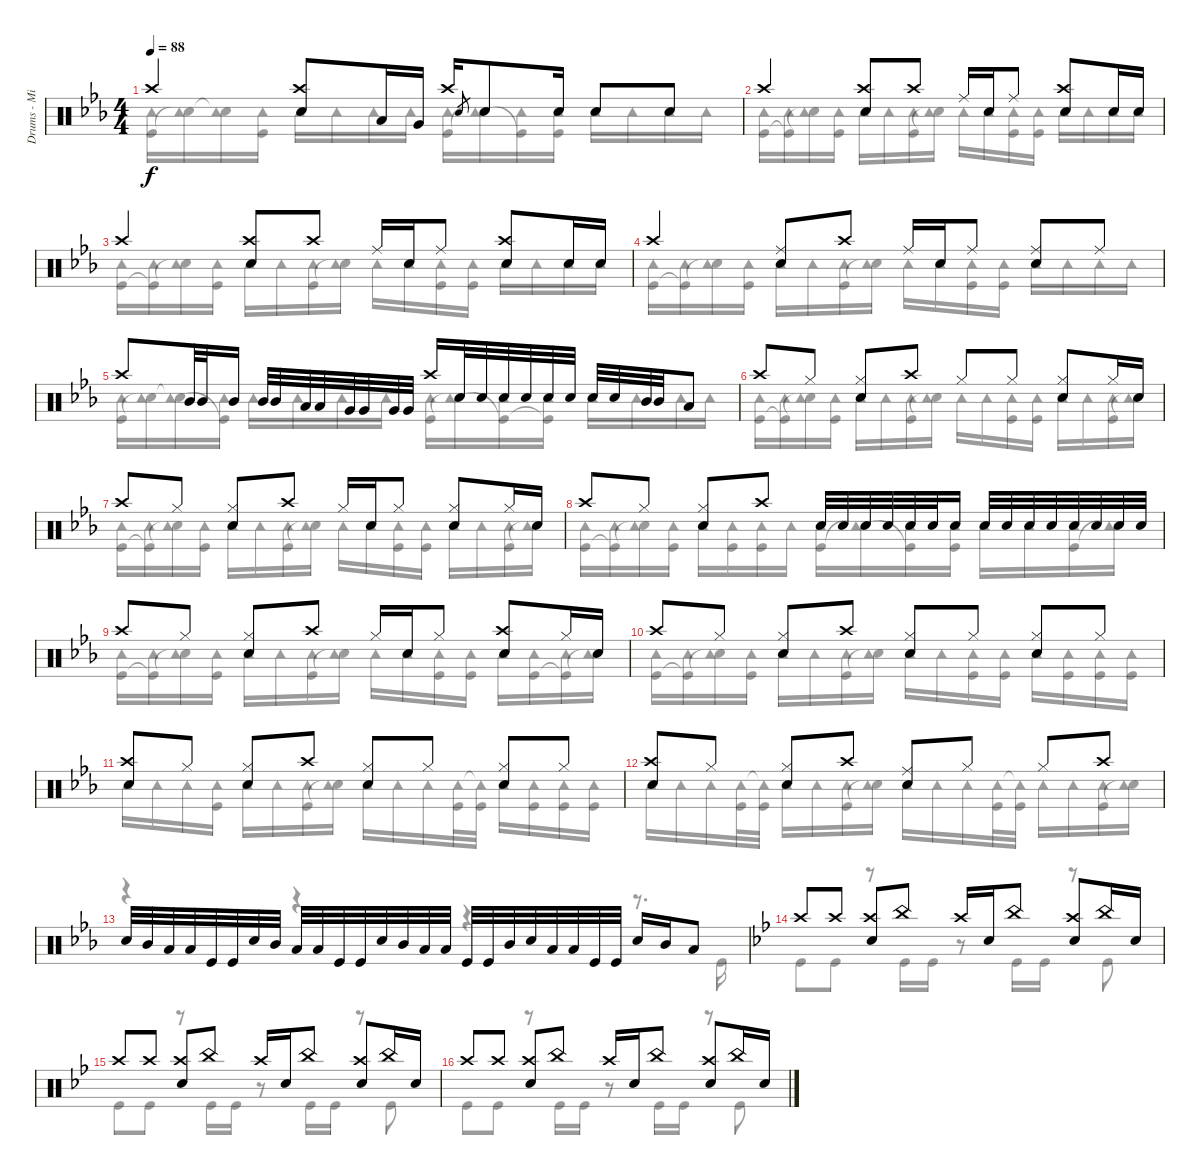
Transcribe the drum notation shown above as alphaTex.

\track ("Drums - Mike Portnoy" "Drums - Mi") {instrument percussion}
\staff {score}
\articulation defaults
\voice
\ts (4 4)
\tempo 88
\clef neutral
\ks eb "Crash high (hit)".4{dy f}
("Crash high (hit)" "Snare (hit) 2").8 "Low Tom (hit)".16 "Very Low Tom (hit)".16 "Crash high (hit)".16 "Snare (hit) 2".8{gr} "Snare (hit) 2".8 "Snare (hit) 2".16 "Snare (hit) 2".8 "Snare (hit) 2".8 |
"Crash high (hit)".4 ("Crash high (hit)" "Snare (hit) 2").8 "Crash high (hit)".8 "Ride (middle)".16 "Snare (hit) 2".16 "Ride (middle)".8 ("Crash high (hit)" "Snare (hit) 2").8 "Snare (hit) 2".16 "Snare (hit) 2".16 |
"Crash high (hit)".4 ("Crash high (hit)" "Snare (hit) 2").8 "Crash high (hit)".8 "Ride (middle)".16 "Snare (hit) 2".16 "Ride (middle)".8 ("Crash high (hit)" "Snare (hit) 2").8 "Snare (hit) 2".16 "Snare (hit) 2".16 |
"Crash high (hit)".4 ("Ride (middle)" "Snare (hit) 2").8 "Crash high (hit)".8 "Ride (middle)".16 "Snare (hit) 2".16 "Ride (middle)".8 ("Ride (middle)" "Snare (hit) 2").8 "Ride (middle)".8 |
"Crash high (hit)".8 "Mid Tom (hit)".32 "Mid Tom (hit)".32 "Mid Tom (hit)".16 "Mid Tom (hit)".32 "Mid Tom (hit)".32 "Low Tom (hit)".32 "Low Tom (hit)".32 "Very Low Tom (hit)".32 "Very Low Tom (hit)".32 "Very Low Tom (hit)".32 "Very Low Tom (hit)".32 "Crash high (hit)".16 "Snare (hit) 2".32 "Snare (hit) 2".32 "Snare (hit) 2".32 "Snare (hit) 2".32 "Snare (hit) 2".32 "Snare (hit) 2".32 "Snare (hit) 2".32 "Snare (hit) 2".32 "Mid Tom (hit)".32 "Mid Tom (hit)".32 "Low Tom (hit)".8 |
"Crash high (hit)".8 "Hi-Hat (closed)".8 ("Hi-Hat (closed)" "Snare (hit) 2").8 "Crash high (hit)".8 "Hi-Hat (closed)".8 "Hi-Hat (closed)".8 ("Hi-Hat (closed)" "Snare (hit) 2").8 "Hi-Hat (closed)".16 "Snare (hit) 2".16 |
"Crash high (hit)".8 "Hi-Hat (closed)".8 ("Hi-Hat (closed)" "Snare (hit) 2").8 "Crash high (hit)".8 "Hi-Hat (closed)".16 "Snare (hit) 2".16 "Hi-Hat (closed)".8 ("Hi-Hat (closed)" "Snare (hit) 2").8 "Hi-Hat (closed)".16 "Snare (hit) 2".16 |
"Crash high (hit)".8 "Hi-Hat (closed)".8 ("Hi-Hat (closed)" "Snare (hit) 2").8 "Crash high (hit)".8 "Snare (hit) 2".32 "Snare (hit) 2".32 "Snare (hit) 2".32 "Snare (hit) 2".32 "Snare (hit) 2".32 "Snare (hit) 2".32 "Snare (hit) 2".16 "Snare (hit) 2".32 "Snare (hit) 2".32 "Snare (hit) 2".32 "Snare (hit) 2".32 "Snare (hit) 2".32 "Snare (hit) 2".32 "Snare (hit) 2".32 "Snare (hit) 2".32 |
"Crash high (hit)".8 "Hi-Hat (closed)".8 ("Hi-Hat (closed)" "Snare (hit) 2").8 "Crash high (hit)".8 "Hi-Hat (closed)".16 "Snare (hit) 2".16 "Hi-Hat (closed)".8 ("Crash high (hit)" "Snare (hit) 2").8 "Hi-Hat (closed)".16 "Snare (hit) 2".16 |
"Crash high (hit)".8 "Hi-Hat (closed)".8 ("Hi-Hat (closed)" "Snare (hit) 2").8 "Crash high (hit)".8 ("Hi-Hat (closed)" "Snare (hit) 2").8 "Hi-Hat (closed)".8 ("Hi-Hat (closed)" "Snare (hit) 2").8 "Hi-Hat (closed)".8 |
("Crash high (hit)" "Snare (hit) 2").8 "Hi-Hat (closed)".8 ("Hi-Hat (closed)" "Snare (hit) 2").8 "Crash high (hit)".8 ("Hi-Hat (closed)" "Snare (hit) 2").8 "Hi-Hat (closed)".8 ("Hi-Hat (closed)" "Snare (hit) 2").8 "Hi-Hat (closed)".8 |
("Crash high (hit)" "Snare (hit) 2").8 "Hi-Hat (closed)".8 ("Hi-Hat (closed)" "Snare (hit) 2").8 "Crash high (hit)".8 ("Ride (middle)" "Snare (hit) 2").8 "Hi-Hat (closed)".8 "Hi-Hat (closed)".8 "Crash high (hit)".8 |
"Snare (hit) 2".32 "Mid Tom (hit)".32 "Low Tom (hit)".32 "Low Tom (hit)".32 "Kick (hit)".32 "Kick (hit)".32 "Snare (hit) 2".32 "Mid Tom (hit)".32 "Low Tom (hit)".32 "Low Tom (hit)".32 "Kick (hit)".32 "Kick (hit)".32 "Snare (hit) 2".32 "Mid Tom (hit)".32 "Low Tom (hit)".32 "Low Tom (hit)".32 "Kick (hit)".32 "Kick (hit)".32 "Mid Tom (hit)".32 "Snare (hit) 2".32 "Low Tom (hit)".32 "Low Tom (hit)".32 "Kick (hit)".32 "Kick (hit)".32 "Snare (hit) 2".16 "Mid Tom (hit)".16 "Low Tom (hit)".8 |
\ks bb "Crash high (hit)".8 "Crash high (hit)".8
("Crash high (hit)" "Snare (hit) 2").8 "China (hit)".8 "Crash high (hit)".16 "Snare (hit) 2".16 "China (hit)".8 ("Crash high (hit)" "Snare (hit) 2").8 "China (hit)".16 "Snare (hit) 2".16 |
"Crash high (hit)".8 "Crash high (hit)".8 ("Crash high (hit)" "Snare (hit) 2").8 "China (hit)".8 "Crash high (hit)".16 "Snare (hit) 2".16 "China (hit)".8 ("Crash high (hit)" "Snare (hit) 2").8 "China (hit)".16 "Snare (hit) 2".16 |
"Crash high (hit)".8 "Crash high (hit)".8 ("Crash high (hit)" "Snare (hit) 2").8 "China (hit)".8 "Crash high (hit)".16 "Snare (hit) 2".16 "China (hit)".8 ("Crash high (hit)" "Snare (hit) 2").8 "China (hit)".16 "Snare (hit) 2".16
\voice
\clef neutral
\ottava regular
\simile none
\ks eb
("Kick (hit)" "Tambourine (hit)").16{dy f} ("Snare (hit)"{t} "Tambourine (hit)").16 ("Snare (hit)"{t} "Tambourine (hit)").16 ("Kick (hit)" "Tambourine (hit)").16 "Tambourine (hit)".16 "Tambourine (hit)".16 "Tambourine (hit)".16 "Tambourine (hit)".16 ("Kick (hit)" "Tambourine (hit)").16 ("Snare (hit)"{t} "Tambourine (hit)").16 ("Kick (hit)"{t} "Tambourine (hit)").16 ("Kick (hit)" "Tambourine (hit)").16 "Tambourine (hit)".16 "Tambourine (hit)".16 "Tambourine (hit)".16 "Tambourine (hit)".16 |
("Kick (hit)" "Tambourine (hit)").16 ("Kick (hit)"{t} "Tambourine (hit)").16 ("Snare (hit)"{t} "Tambourine (hit)").16 ("Kick (hit)" "Tambourine (hit)").16 "Tambourine (hit)".16 "Tambourine (hit)".16 ("Kick (hit)" "Tambourine (hit)").16 ("Snare (hit)"{t} "Tambourine (hit)").16 "Tambourine (hit)".16 "Tambourine (hit)".16 ("Kick (hit)" "Tambourine (hit)").16 ("Kick (hit)" "Tambourine (hit)").16 "Tambourine (hit)".16 "Tambourine (hit)".16 "Tambourine (hit)".16 "Tambourine (hit)".16 |
("Kick (hit)" "Tambourine (hit)").16 ("Kick (hit)"{t} "Tambourine (hit)").16 ("Snare (hit)"{t} "Tambourine (hit)").16 ("Kick (hit)" "Tambourine (hit)").16 "Tambourine (hit)".16 "Tambourine (hit)".16 ("Kick (hit)" "Tambourine (hit)").16 ("Snare (hit)"{t} "Tambourine (hit)").16 "Tambourine (hit)".16 "Tambourine (hit)".16 ("Kick (hit)" "Tambourine (hit)").16 ("Kick (hit)" "Tambourine (hit)").16 "Tambourine (hit)".16 "Tambourine (hit)".16 "Tambourine (hit)".16 "Tambourine (hit)".16 |
("Kick (hit)" "Tambourine (hit)").16 ("Kick (hit)"{t} "Tambourine (hit)").16 ("Snare (hit)"{t} "Tambourine (hit)").16 ("Kick (hit)" "Tambourine (hit)").16 "Tambourine (hit)".16 "Tambourine (hit)".16 ("Kick (hit)" "Tambourine (hit)").16 ("Snare (hit)"{t} "Tambourine (hit)").16 "Tambourine (hit)".16 "Tambourine (hit)".16 ("Kick (hit)" "Tambourine (hit)").16 ("Kick (hit)" "Tambourine (hit)").16 "Tambourine (hit)".16 "Tambourine (hit)".16 "Tambourine (hit)".16 "Tambourine (hit)".16 |
("Kick (hit)" "Tambourine (hit)").16 ("Snare (hit)"{t} "Tambourine (hit)").16 ("Snare (hit)"{t} "Tambourine (hit)").16 ("Kick (hit)"{t} "Tambourine (hit)").16 "Tambourine (hit)".16 "Tambourine (hit)".16 "Tambourine (hit)".16 "Tambourine (hit)".16 ("Kick (hit)" "Tambourine (hit)").16 ("Snare (hit)"{t} "Tambourine (hit)").16 ("Kick (hit)"{t} "Tambourine (hit)").16 ("Kick (hit)"{t} "Tambourine (hit)").16 "Tambourine (hit)".16 "Tambourine (hit)".16 "Tambourine (hit)".16 "Tambourine (hit)".16 |
("Kick (hit)" "Tambourine (hit)").16 ("Kick (hit)"{t} "Tambourine (hit)").16 ("Snare (hit)"{t} "Tambourine (hit)").16 ("Kick (hit)" "Tambourine (hit)").16 "Tambourine (hit)".16 "Tambourine (hit)".16 ("Kick (hit)" "Tambourine (hit)").16 ("Snare (hit)"{t} "Tambourine (hit)").16 "Tambourine (hit)".16 "Tambourine (hit)".16 ("Kick (hit)" "Tambourine (hit)").16 ("Kick (hit)" "Tambourine (hit)").16 "Tambourine (hit)".16 "Tambourine (hit)".16 ("Kick (hit)" "Tambourine (hit)").16 ("Snare (hit)"{t} "Tambourine (hit)").16 |
("Kick (hit)" "Tambourine (hit)").16 ("Kick (hit)"{t} "Tambourine (hit)").16 ("Snare (hit)"{t} "Tambourine (hit)").16 ("Kick (hit)" "Tambourine (hit)").16 "Tambourine (hit)".16 "Tambourine (hit)".16 ("Kick (hit)" "Tambourine (hit)").16 ("Snare (hit)"{t} "Tambourine (hit)").16 "Tambourine (hit)".16 "Tambourine (hit)".16 ("Kick (hit)" "Tambourine (hit)").16 ("Kick (hit)" "Tambourine (hit)").16 "Tambourine (hit)".16 "Tambourine (hit)".16 ("Kick (hit)" "Tambourine (hit)").16 ("Snare (hit)"{t} "Tambourine (hit)").16 |
("Kick (hit)" "Tambourine (hit)").16 ("Kick (hit)"{t} "Tambourine (hit)").16 ("Snare (hit)"{t} "Tambourine (hit)").16 ("Kick (hit)" "Tambourine (hit)").16 "Tambourine (hit)".16 ("Kick (hit)" "Tambourine (hit)").16 ("Kick (hit)" "Tambourine (hit)").16 "Tambourine (hit)".16 ("Kick (hit)" "Tambourine (hit)").16 ("Snare (hit)"{t} "Tambourine (hit)").16 ("Kick (hit)"{t} "Tambourine (hit)").16 ("Kick (hit)" "Tambourine (hit)").16 "Tambourine (hit)".16 "Tambourine (hit)".16 ("Kick (hit)" "Tambourine (hit)").16 ("Snare (hit)"{t} "Tambourine (hit)").16 |
("Kick (hit)" "Tambourine (hit)").16 ("Kick (hit)"{t} "Tambourine (hit)").16 ("Snare (hit)"{t} "Tambourine (hit)").16 ("Kick (hit)" "Tambourine (hit)").16 "Tambourine (hit)".16 "Tambourine (hit)".16 ("Kick (hit)" "Tambourine (hit)").16 ("Snare (hit)"{t} "Tambourine (hit)").16 "Tambourine (hit)".16 "Tambourine (hit)".16 ("Kick (hit)" "Tambourine (hit)").16 ("Kick (hit)" "Tambourine (hit)").16 "Tambourine (hit)".16 ("Kick (hit)" "Tambourine (hit)").16 ("Kick (hit)"{t} "Tambourine (hit)").16 ("Snare (hit)"{t} "Tambourine (hit)").16 |
("Kick (hit)" "Tambourine (hit)").16 ("Kick (hit)"{t} "Tambourine (hit)").16 ("Snare (hit)"{t} "Tambourine (hit)").16 ("Kick (hit)" "Tambourine (hit)").16 "Tambourine (hit)".16 "Tambourine (hit)".16 ("Kick (hit)" "Tambourine (hit)").16 ("Snare (hit)"{t} "Tambourine (hit)").16 "Tambourine (hit)".16 "Tambourine (hit)".16 ("Kick (hit)" "Tambourine (hit)").16 ("Kick (hit)" "Tambourine (hit)").16 "Tambourine (hit)".16 ("Kick (hit)" "Tambourine (hit)").16 ("Kick (hit)" "Tambourine (hit)").16 ("Kick (hit)" "Tambourine (hit)").16 |
"Tambourine (hit)".16 "Tambourine (hit)".16 "Tambourine (hit)".16 ("Kick (hit)" "Tambourine (hit)").16 "Tambourine (hit)".16 "Tambourine (hit)".16 ("Kick (hit)" "Tambourine (hit)").16 ("Snare (hit)"{t} "Tambourine (hit)").16 "Tambourine (hit)".16 "Tambourine (hit)".16 "Tambourine (hit)".16 ("Kick (hit)" "Tambourine (hit)").32 ("Kick (hit)" "Tambourine (hit)"{t}).32 "Tambourine (hit)".16 ("Kick (hit)" "Tambourine (hit)").16 ("Kick (hit)" "Tambourine (hit)").16 ("Kick (hit)" "Tambourine (hit)").16 |
"Tambourine (hit)".16 "Tambourine (hit)".16 "Tambourine (hit)".16 ("Kick (hit)" "Tambourine (hit)").32 ("Kick (hit)" "Tambourine (hit)"{t}).32 "Tambourine (hit)".16 "Tambourine (hit)".16 ("Kick (hit)" "Tambourine (hit)").16 ("Snare (hit)"{t} "Tambourine (hit)").16 "Tambourine (hit)".16 "Tambourine (hit)".16 "Tambourine (hit)".16 ("Kick (hit)" "Tambourine (hit)").32 ("Kick (hit)" "Tambourine (hit)"{t}).32 "Tambourine (hit)".16 "Tambourine (hit)".16 ("Kick (hit)" "Tambourine (hit)").16 ("Snare (hit)"{t} "Tambourine (hit)").16 |
r.4 r.4 r.4 r.8{d} "Kick (hit)".16 |
\ks bb "Kick (hit)".8 "Kick (hit)".8
r.8 "Kick (hit)".16 "Kick (hit)".16 r.8 "Kick (hit)".16 "Kick (hit)".16 r.8 "Kick (hit)".8 |
"Kick (hit)".8 "Kick (hit)".8 r.8 "Kick (hit)".16 "Kick (hit)".16 r.8 "Kick (hit)".16 "Kick (hit)".16 r.8 "Kick (hit)".8 |
"Kick (hit)".8 "Kick (hit)".8 r.8 "Kick (hit)".16 "Kick (hit)".16 r.8 "Kick (hit)".16 "Kick (hit)".16 r.8 "Kick (hit)".8
